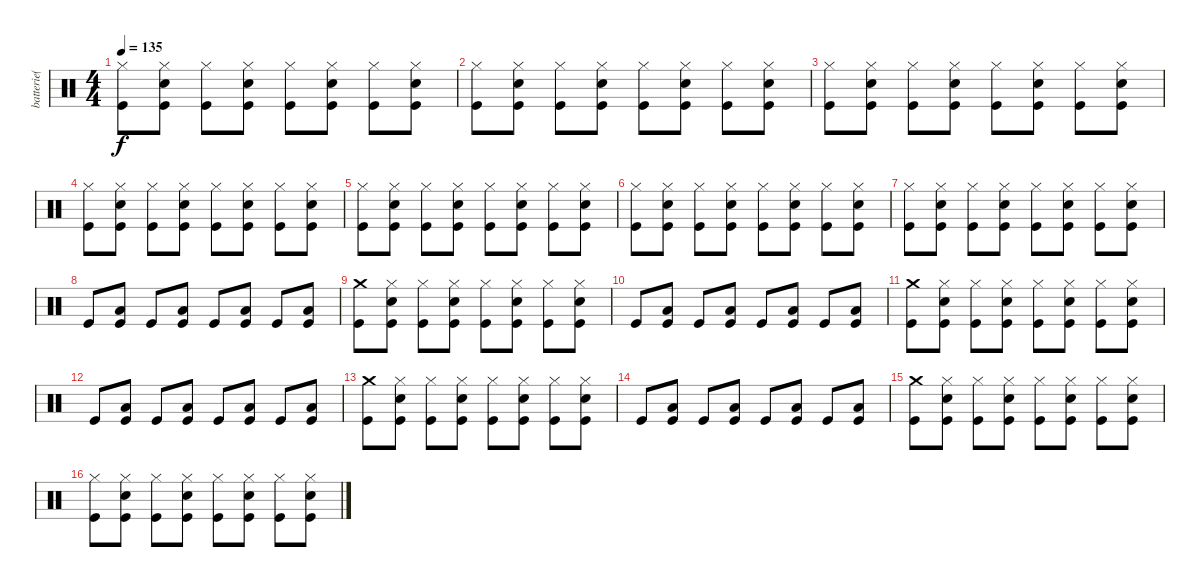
\track ("batterie( Shane )" "batterie( ") {instrument percussion}
\staff {score}
\articulation defaults
\ts (4 4)
\tempo 135
\clef neutral
\ks c
("Hi-Hat (closed)" "Kick (hit)").8{dy f} ("Hi-Hat (closed)" "Snare (hit) 2" "Kick (hit)").8 ("Hi-Hat (closed)" "Kick (hit)").8 ("Hi-Hat (closed)" "Snare (hit) 2" "Kick (hit)").8 ("Hi-Hat (closed)" "Kick (hit)").8 ("Hi-Hat (closed)" "Snare (hit) 2" "Kick (hit)").8 ("Hi-Hat (closed)" "Kick (hit)").8 ("Hi-Hat (closed)" "Snare (hit) 2" "Kick (hit)").8 |
("Hi-Hat (closed)" "Kick (hit)").8 ("Hi-Hat (closed)" "Snare (hit) 2" "Kick (hit)").8 ("Hi-Hat (closed)" "Kick (hit)").8 ("Hi-Hat (closed)" "Snare (hit) 2" "Kick (hit)").8 ("Hi-Hat (closed)" "Kick (hit)").8 ("Hi-Hat (closed)" "Snare (hit) 2" "Kick (hit)").8 ("Hi-Hat (closed)" "Kick (hit)").8 ("Hi-Hat (closed)" "Snare (hit) 2" "Kick (hit)").8 |
("Hi-Hat (closed)" "Kick (hit)").8 ("Hi-Hat (closed)" "Snare (hit) 2" "Kick (hit)").8 ("Hi-Hat (closed)" "Kick (hit)").8 ("Hi-Hat (closed)" "Snare (hit) 2" "Kick (hit)").8 ("Hi-Hat (closed)" "Kick (hit)").8 ("Hi-Hat (closed)" "Snare (hit) 2" "Kick (hit)").8 ("Hi-Hat (closed)" "Kick (hit)").8 ("Hi-Hat (closed)" "Snare (hit) 2" "Kick (hit)").8 |
("Hi-Hat (closed)" "Kick (hit)").8 ("Hi-Hat (closed)" "Snare (hit) 2" "Kick (hit)").8 ("Hi-Hat (closed)" "Kick (hit)").8 ("Hi-Hat (closed)" "Snare (hit) 2" "Kick (hit)").8 ("Hi-Hat (closed)" "Kick (hit)").8 ("Hi-Hat (closed)" "Snare (hit) 2" "Kick (hit)").8 ("Hi-Hat (closed)" "Kick (hit)").8 ("Hi-Hat (closed)" "Snare (hit) 2" "Kick (hit)").8 |
("Hi-Hat (closed)" "Kick (hit)").8 ("Hi-Hat (closed)" "Snare (hit) 2" "Kick (hit)").8 ("Hi-Hat (closed)" "Kick (hit)").8 ("Hi-Hat (closed)" "Snare (hit) 2" "Kick (hit)").8 ("Hi-Hat (closed)" "Kick (hit)").8 ("Hi-Hat (closed)" "Snare (hit) 2" "Kick (hit)").8 ("Hi-Hat (closed)" "Kick (hit)").8 ("Hi-Hat (closed)" "Snare (hit) 2" "Kick (hit)").8 |
("Hi-Hat (closed)" "Kick (hit)").8 ("Hi-Hat (closed)" "Snare (hit) 2" "Kick (hit)").8 ("Hi-Hat (closed)" "Kick (hit)").8 ("Hi-Hat (closed)" "Snare (hit) 2" "Kick (hit)").8 ("Hi-Hat (closed)" "Kick (hit)").8 ("Hi-Hat (closed)" "Snare (hit) 2" "Kick (hit)").8 ("Hi-Hat (closed)" "Kick (hit)").8 ("Hi-Hat (closed)" "Snare (hit) 2" "Kick (hit)").8 |
("Hi-Hat (closed)" "Kick (hit)").8 ("Hi-Hat (closed)" "Snare (hit) 2" "Kick (hit)").8 ("Hi-Hat (closed)" "Kick (hit)").8 ("Hi-Hat (closed)" "Snare (hit) 2" "Kick (hit)").8 ("Hi-Hat (closed)" "Kick (hit)").8 ("Hi-Hat (closed)" "Snare (hit) 2" "Kick (hit)").8 ("Hi-Hat (closed)" "Kick (hit)").8 ("Hi-Hat (closed)" "Snare (hit) 2" "Kick (hit)").8 |
"Kick (hit)".8 ("Low Floor Tom (hit)" "Kick (hit)").8 "Kick (hit)".8 ("Low Floor Tom (hit)" "Kick (hit)").8 "Kick (hit)".8 ("Low Floor Tom (hit)" "Kick (hit)").8 "Kick (hit)".8 ("Low Floor Tom (hit)" "Kick (hit)").8 |
("Crash medium (hit)" "Kick (hit)").8 ("Hi-Hat (closed)" "Snare (hit) 2" "Kick (hit)").8 ("Hi-Hat (closed)" "Kick (hit)").8 ("Hi-Hat (closed)" "Snare (hit) 2" "Kick (hit)").8 ("Hi-Hat (closed)" "Kick (hit)").8 ("Hi-Hat (closed)" "Snare (hit) 2" "Kick (hit)").8 ("Hi-Hat (closed)" "Kick (hit)").8 ("Hi-Hat (closed)" "Snare (hit) 2" "Kick (hit)").8 |
"Kick (hit)".8 ("Low Floor Tom (hit)" "Kick (hit)").8 "Kick (hit)".8 ("Low Floor Tom (hit)" "Kick (hit)").8 "Kick (hit)".8 ("Low Floor Tom (hit)" "Kick (hit)").8 "Kick (hit)".8 ("Low Floor Tom (hit)" "Kick (hit)").8 |
("Crash medium (hit)" "Kick (hit)").8 ("Hi-Hat (closed)" "Snare (hit) 2" "Kick (hit)").8 ("Hi-Hat (closed)" "Kick (hit)").8 ("Hi-Hat (closed)" "Snare (hit) 2" "Kick (hit)").8 ("Hi-Hat (closed)" "Kick (hit)").8 ("Hi-Hat (closed)" "Snare (hit) 2" "Kick (hit)").8 ("Hi-Hat (closed)" "Kick (hit)").8 ("Hi-Hat (closed)" "Snare (hit) 2" "Kick (hit)").8 |
"Kick (hit)".8 ("Low Floor Tom (hit)" "Kick (hit)").8 "Kick (hit)".8 ("Low Floor Tom (hit)" "Kick (hit)").8 "Kick (hit)".8 ("Low Floor Tom (hit)" "Kick (hit)").8 "Kick (hit)".8 ("Low Floor Tom (hit)" "Kick (hit)").8 |
("Crash medium (hit)" "Kick (hit)").8 ("Hi-Hat (closed)" "Snare (hit) 2" "Kick (hit)").8 ("Hi-Hat (closed)" "Kick (hit)").8 ("Hi-Hat (closed)" "Snare (hit) 2" "Kick (hit)").8 ("Hi-Hat (closed)" "Kick (hit)").8 ("Hi-Hat (closed)" "Snare (hit) 2" "Kick (hit)").8 ("Hi-Hat (closed)" "Kick (hit)").8 ("Hi-Hat (closed)" "Snare (hit) 2" "Kick (hit)").8 |
"Kick (hit)".8 ("Low Floor Tom (hit)" "Kick (hit)").8 "Kick (hit)".8 ("Low Floor Tom (hit)" "Kick (hit)").8 "Kick (hit)".8 ("Low Floor Tom (hit)" "Kick (hit)").8 "Kick (hit)".8 ("Low Floor Tom (hit)" "Kick (hit)").8 |
("Crash medium (hit)" "Kick (hit)").8 ("Hi-Hat (closed)" "Snare (hit) 2" "Kick (hit)").8 ("Hi-Hat (closed)" "Kick (hit)").8 ("Hi-Hat (closed)" "Snare (hit) 2" "Kick (hit)").8 ("Hi-Hat (closed)" "Kick (hit)").8 ("Hi-Hat (closed)" "Snare (hit) 2" "Kick (hit)").8 ("Hi-Hat (closed)" "Kick (hit)").8 ("Hi-Hat (closed)" "Snare (hit) 2" "Kick (hit)").8 |
("Hi-Hat (closed)" "Kick (hit)").8 ("Hi-Hat (closed)" "Snare (hit) 2" "Kick (hit)").8 ("Hi-Hat (closed)" "Kick (hit)").8 ("Hi-Hat (closed)" "Snare (hit) 2" "Kick (hit)").8 ("Hi-Hat (closed)" "Kick (hit)").8 ("Hi-Hat (closed)" "Snare (hit) 2" "Kick (hit)").8 ("Hi-Hat (closed)" "Kick (hit)").8 ("Hi-Hat (closed)" "Snare (hit) 2" "Kick (hit)").8
